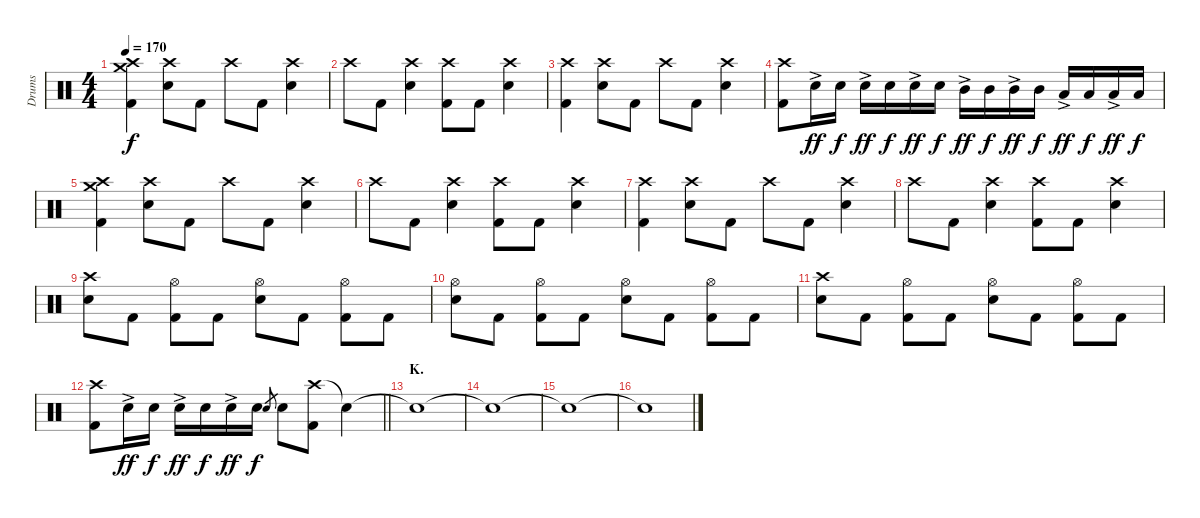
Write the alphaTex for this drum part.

\track ("Drums" "Drums") {instrument percussion}
\staff {score}
\articulation defaults
\ts (4 4)
\tempo 170
\clef neutral
\ks c
("Crash medium (hit)" "Crash high (hit)" "Kick (hit) 2").4{dy f} ("Crash high (hit)" "Electric Snare (hit)").8 "Kick (hit) 2".8 "Crash high (hit)".8 "Kick (hit) 2".8 ("Crash high (hit)" "Electric Snare (hit)").4 |
"Crash high (hit)".8 "Kick (hit) 2".8 ("Crash high (hit)" "Electric Snare (hit)").4 ("Crash high (hit)" "Kick (hit) 2").8 "Kick (hit) 2".8 ("Crash high (hit)" "Electric Snare (hit)").4 |
("Crash high (hit)" "Kick (hit) 2").4 ("Crash high (hit)" "Electric Snare (hit)").8 "Kick (hit) 2".8 "Crash high (hit)".8 "Kick (hit) 2".8 ("Crash high (hit)" "Electric Snare (hit)").4 |
("Crash high (hit)" "Kick (hit) 2").8 "Electric Snare (hit)"{ac}.16{dy ff} "Electric Snare (hit)".16{dy f} "Electric Snare (hit)"{ac}.16{dy ff} "Electric Snare (hit)".16{dy f} "Electric Snare (hit)"{ac}.16{dy ff} "Electric Snare (hit)".16{dy f} "Mid Tom (hit)"{ac}.16{dy ff} "Mid Tom (hit)".16{dy f} "Mid Tom (hit)"{ac}.16{dy ff} "Mid Tom (hit)".16{dy f} "Low Tom (hit)"{ac}.16{dy ff} "Low Tom (hit)".16{dy f} "Low Tom (hit)"{ac}.16{dy ff} "Low Tom (hit)".16{dy f} |
("Crash medium (hit)" "Crash high (hit)" "Kick (hit) 2").4 ("Crash high (hit)" "Electric Snare (hit)").8 "Kick (hit) 2".8 "Crash high (hit)".8 "Kick (hit) 2".8 ("Crash high (hit)" "Electric Snare (hit)").4 |
"Crash high (hit)".8 "Kick (hit) 2".8 ("Crash high (hit)" "Electric Snare (hit)").4 ("Crash high (hit)" "Kick (hit) 2").8 "Kick (hit) 2".8 ("Crash high (hit)" "Electric Snare (hit)").4 |
("Crash high (hit)" "Kick (hit) 2").4 ("Crash high (hit)" "Electric Snare (hit)").8 "Kick (hit) 2".8 "Crash high (hit)".8 "Kick (hit) 2".8 ("Crash high (hit)" "Electric Snare (hit)").4 |
"Crash high (hit)".8 "Kick (hit) 2".8 ("Crash high (hit)" "Electric Snare (hit)").4 ("Crash high (hit)" "Kick (hit) 2").8 "Kick (hit) 2".8 ("Crash high (hit)" "Electric Snare (hit)").4 |
("Crash high (hit)" "Electric Snare (hit)").8 "Kick (hit) 2".8 ("Hi-Hat (open)" "Kick (hit) 2").8 "Kick (hit) 2".8 ("Hi-Hat (open)" "Electric Snare (hit)").8 "Kick (hit) 2".8 ("Hi-Hat (open)" "Kick (hit) 2").8 "Kick (hit) 2".8 |
("Hi-Hat (open)" "Electric Snare (hit)").8 "Kick (hit) 2".8 ("Hi-Hat (open)" "Kick (hit) 2").8 "Kick (hit) 2".8 ("Hi-Hat (open)" "Electric Snare (hit)").8 "Kick (hit) 2".8 ("Hi-Hat (open)" "Kick (hit) 2").8 "Kick (hit) 2".8 |
("Crash high (hit)" "Electric Snare (hit)").8 "Kick (hit) 2".8 ("Hi-Hat (open)" "Kick (hit) 2").8 "Kick (hit) 2".8 ("Hi-Hat (open)" "Electric Snare (hit)").8 "Kick (hit) 2".8 ("Hi-Hat (open)" "Kick (hit) 2").8 "Kick (hit) 2".8 |
\barLineRight lightlight
("Crash high (hit)" "Kick (hit) 2").8 "Electric Snare (hit)"{ac}.16{dy ff} "Electric Snare (hit)".16{dy f} "Electric Snare (hit)"{ac}.16{dy ff} "Electric Snare (hit)".16{dy f} "Electric Snare (hit)"{ac}.16{dy ff} "Electric Snare (hit)".16{dy f} "Electric Snare (hit)".8{gr} "Electric Snare (hit)".8 ("Crash high (hit)" "Kick (hit) 2").8 "Snare (hit)"{t}.4 |
\section ("" "K.")
"Snare (hit)"{t}.1 |
"Snare (hit)"{t}.1 |
"Snare (hit)"{t}.1 |
"Snare (hit)"{t}.1
